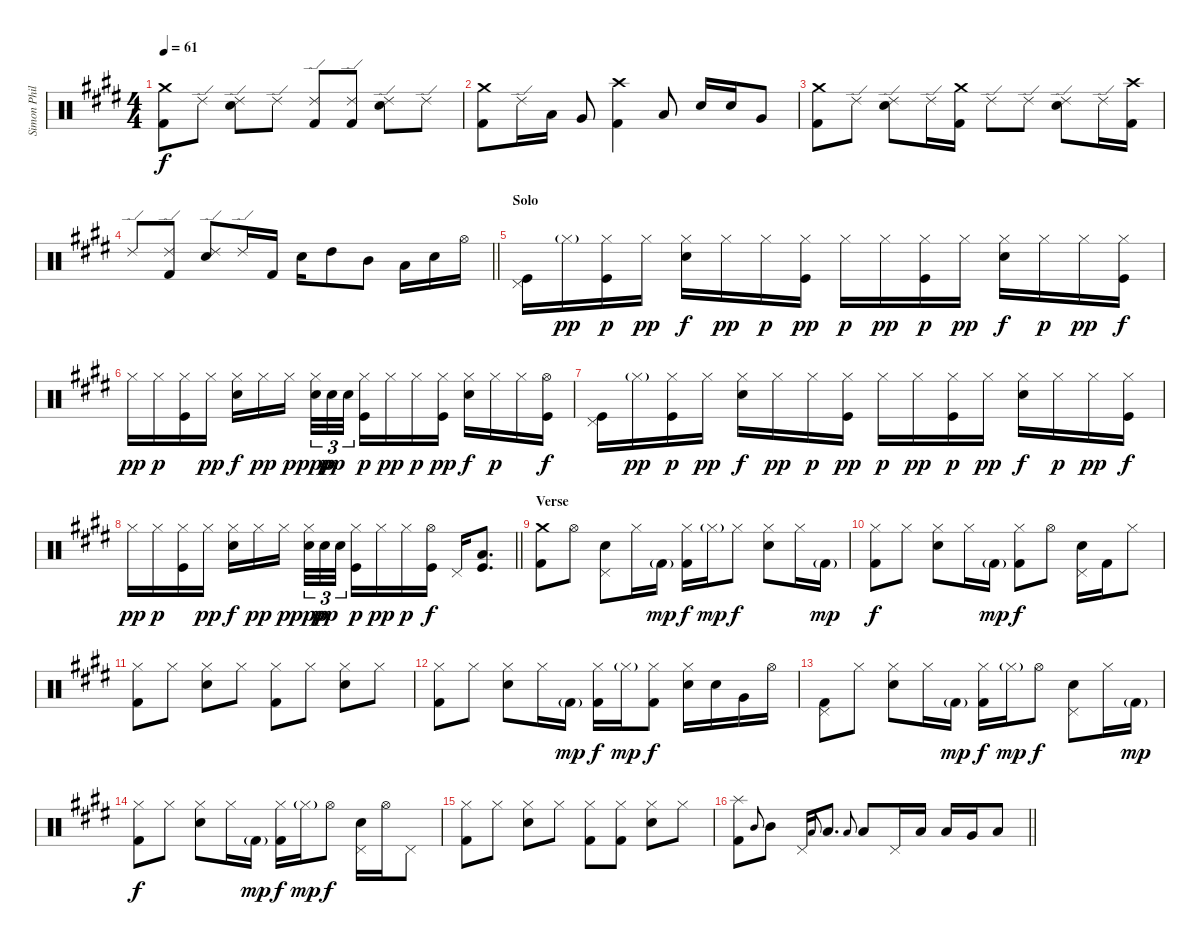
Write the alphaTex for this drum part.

\track ("Simon Phillips" "Simon Phil") {instrument percussion}
\staff {score}
\articulation defaults
\ts (4 4)
\tempo 61
\clef neutral
\ks e
("Crash medium (hit)" "Kick (hit) 2").8{dy f} "Ride (edge) 2".8 ("Ride (edge) 2" "Electric Snare (hit)").8 "Ride (edge) 2".8 ("Ride (edge) 2" "Kick (hit) 2").8 ("Ride (edge) 2" "Kick (hit) 2").8 ("Ride (edge) 2" "Electric Snare (hit)").8 "Ride (edge) 2".8 |
("Crash medium (hit)" "Kick (hit) 2").8 "Ride (edge) 2".16 "Low Tom (hit)".16 "Very Low Tom (hit)".8 ("Crash high (hit)" "Kick (hit) 2").4 "Low Floor Tom (hit)".8 "Electric Snare (hit)".16 "Electric Snare (hit)".16 "Very Low Tom (hit)".8 |
("Crash medium (hit)" "Kick (hit) 2").8 "Ride (edge) 2".8 ("Ride (edge) 2" "Electric Snare (hit)").8 "Ride (edge) 2".16 ("Crash medium (hit)" "Kick (hit) 2").16 "Ride (edge) 2".8 "Ride (edge) 2".8 ("Ride (edge) 2" "Electric Snare (hit)").8 "Ride (edge) 2".16 ("Crash high (hit)" "Kick (hit) 2").16 |
\barLineRight lightlight "Ride (edge) 2".8
("Ride (edge) 2" "Kick (hit) 2").8 ("Ride (edge) 2" "Electric Snare (hit)").8 "Ride (edge) 2".16 "Kick (hit) 2".16 "Electric Snare (hit)".16 "High Tom (hit)".8 "Mid Tom (hit)".8 "Low Tom (hit)".16 "Electric Snare (hit)".16 "Hi-Hat (open)".16 |
\section ("" "Solo")
("Pedal Hi-Hat (hit)" "Kick (hit)").16 "Hi-Hat (closed)"{g}.16{dy pp} ("Hi-Hat (closed)" "Kick (hit)").16{dy p} "Hi-Hat (closed)".16{dy pp} ("Hi-Hat (closed)" "Electric Snare (hit)").16{dy f} "Hi-Hat (closed)".16{dy pp} "Hi-Hat (closed)".16{dy p} ("Hi-Hat (closed)" "Kick (hit)").16{dy pp} "Hi-Hat (closed)".16{dy p} "Hi-Hat (closed)".16{dy pp} ("Hi-Hat (closed)" "Kick (hit)").16{dy p} "Hi-Hat (closed)".16{dy pp} ("Hi-Hat (closed)" "Electric Snare (hit)").16{dy f} "Hi-Hat (closed)".16{dy p} "Hi-Hat (closed)".16{dy pp} ("Hi-Hat (closed)" "Kick (hit)").16{dy f} |
"Hi-Hat (closed)".16{dy pp} "Hi-Hat (closed)".16{dy p} ("Hi-Hat (closed)" "Kick (hit)").16 "Hi-Hat (closed)".16{dy pp} ("Hi-Hat (closed)" "Electric Snare (hit)").16{dy f} "Hi-Hat (closed)".16{dy pp} "Hi-Hat (closed)".16{dy p beam splitsecondary} ("Hi-Hat (closed)" "Electric Snare (hit)").32{tu (3 2) dy ppp} "Electric Snare (hit)".32{tu (3 2) dy pp} "Electric Snare (hit)".32{tu (3 2)} ("Hi-Hat (closed)" "Kick (hit)").16{dy p} "Hi-Hat (closed)".16{dy pp} "Hi-Hat (closed)".16{dy p} ("Hi-Hat (closed)" "Kick (hit)").16{dy pp} ("Hi-Hat (closed)" "Electric Snare (hit)").16{dy f} "Hi-Hat (closed)".16{dy p} "Hi-Hat (closed)".16 ("Hi-Hat (open)" "Kick (hit)").16{dy f} |
("Pedal Hi-Hat (hit)" "Kick (hit)").16 "Hi-Hat (closed)"{g}.16{dy pp} ("Hi-Hat (closed)" "Kick (hit)").16{dy p} "Hi-Hat (closed)".16{dy pp} ("Hi-Hat (closed)" "Electric Snare (hit)").16{dy f} "Hi-Hat (closed)".16{dy pp} "Hi-Hat (closed)".16{dy p} ("Hi-Hat (closed)" "Kick (hit)").16{dy pp} "Hi-Hat (closed)".16{dy p} "Hi-Hat (closed)".16{dy pp} ("Hi-Hat (closed)" "Kick (hit)").16{dy p} "Hi-Hat (closed)".16{dy pp} ("Hi-Hat (closed)" "Electric Snare (hit)").16{dy f} "Hi-Hat (closed)".16{dy p} "Hi-Hat (closed)".16{dy pp} ("Hi-Hat (closed)" "Kick (hit)").16{dy f} |
\barLineRight lightlight "Hi-Hat (closed)".16{dy pp} "Hi-Hat (closed)".16{dy p}
("Hi-Hat (closed)" "Kick (hit)").16 "Hi-Hat (closed)".16{dy pp} ("Hi-Hat (closed)" "Electric Snare (hit)").16{dy f} "Hi-Hat (closed)".16{dy pp} "Hi-Hat (closed)".16{dy p beam splitsecondary} ("Hi-Hat (closed)" "Electric Snare (hit)").32{tu (3 2) dy ppp} "Electric Snare (hit)".32{tu (3 2) dy pp} "Electric Snare (hit)".32{tu (3 2)} ("Hi-Hat (closed)" "Kick (hit)").16{dy p} "Hi-Hat (closed)".16{dy pp} "Hi-Hat (closed)".16{dy p} ("Hi-Hat (open)" "Kick (hit)").16{dy f} "Pedal Hi-Hat (hit)".16 ("Low Floor Tom (hit)" "Kick (hit)").8{d} |
\section ("" "Verse")
("Crash medium (hit)" "Kick (hit) 2").8 "Hi-Hat (open)".8 ("Pedal Hi-Hat (hit)" "Electric Snare (hit)").8 "Hi-Hat (closed)".16 "Kick (hit) 2"{g}.16{dy mp} ("Hi-Hat (closed)" "Kick (hit) 2").16{dy f} "Hi-Hat (closed)"{g}.16{dy mp} "Hi-Hat (closed)".8{dy f} ("Hi-Hat (closed)" "Electric Snare (hit)").8 "Hi-Hat (closed)".16 "Kick (hit) 2"{g}.16{dy mp} |
("Hi-Hat (closed)" "Kick (hit) 2").8{dy f} "Hi-Hat (closed)".8 ("Hi-Hat (closed)" "Electric Snare (hit)").8 "Hi-Hat (closed)".16 "Kick (hit) 2"{g}.16{dy mp} ("Hi-Hat (closed)" "Kick (hit) 2").8{dy f} "Hi-Hat (open)".8 ("Pedal Hi-Hat (hit)" "Electric Snare (hit)").16 "Kick (hit) 2".16 "Hi-Hat (closed)".8 |
("Hi-Hat (closed)" "Kick (hit) 2").8 "Hi-Hat (closed)".8 ("Hi-Hat (closed)" "Electric Snare (hit)").8 "Hi-Hat (closed)".8 ("Hi-Hat (closed)" "Kick (hit) 2").8 "Hi-Hat (closed)".8 ("Hi-Hat (closed)" "Electric Snare (hit)").8 "Hi-Hat (closed)".8 |
("Hi-Hat (closed)" "Kick (hit) 2").8 "Hi-Hat (closed)".8 ("Hi-Hat (closed)" "Electric Snare (hit)").8 "Hi-Hat (closed)".16 "Kick (hit) 2"{g}.16{dy mp} ("Hi-Hat (closed)" "Kick (hit) 2").16{dy f} "Hi-Hat (closed)"{g}.16{dy mp} ("Hi-Hat (closed)" "Kick (hit) 2").8{dy f} ("Hi-Hat (closed)" "Electric Snare (hit)").16 "Electric Snare (hit)".16 "Very Low Tom (hit)".16 "Hi-Hat (open)".16 |
("Pedal Hi-Hat (hit)" "Kick (hit) 2").8 "Hi-Hat (closed)".8 ("Hi-Hat (closed)" "Electric Snare (hit)").8 "Hi-Hat (closed)".16 "Kick (hit) 2"{g}.16{dy mp} ("Hi-Hat (closed)" "Kick (hit) 2").16{dy f} "Hi-Hat (closed)"{g}.16{dy mp} "Hi-Hat (open)".8{dy f} ("Pedal Hi-Hat (hit)" "Electric Snare (hit)").8 "Hi-Hat (closed)".16 "Kick (hit) 2"{g}.16{dy mp} |
("Hi-Hat (closed)" "Kick (hit) 2").8{dy f} "Hi-Hat (closed)".8 ("Hi-Hat (closed)" "Electric Snare (hit)").8 "Hi-Hat (closed)".16 "Kick (hit) 2"{g}.16{dy mp} ("Hi-Hat (closed)" "Kick (hit) 2").16{dy f} "Hi-Hat (closed)"{g}.16{dy mp} "Hi-Hat (open)".8{dy f} ("Pedal Hi-Hat (hit)" "Electric Snare (hit)").16 "Hi-Hat (open)".16 "Pedal Hi-Hat (hit)".8 |
("Hi-Hat (closed)" "Kick (hit) 2").8 "Hi-Hat (closed)".8 ("Hi-Hat (closed)" "Electric Snare (hit)").8 "Hi-Hat (closed)".8 ("Hi-Hat (closed)" "Kick (hit) 2").8 ("Hi-Hat (closed)" "Kick (hit) 2").8 ("Hi-Hat (closed)" "Electric Snare (hit)").8 "Hi-Hat (closed)".8 |
\barLineRight lightlight
("Splash (hit)" "Kick (hit) 2").8 "Mid Tom (hit)".8{gr onbeat} "Mid Tom (hit)".8 "Pedal Hi-Hat (hit)".16 "Low Tom (hit)".8{gr onbeat} "Low Tom (hit)".8{d} "Low Tom (hit)".8{gr onbeat} "Low Tom (hit)".8 "Pedal Hi-Hat (hit)".16 "Low Tom (hit)".16 "Low Tom (hit)".16 "Very Low Tom (hit)".16 "Low Floor Tom (hit)".8
